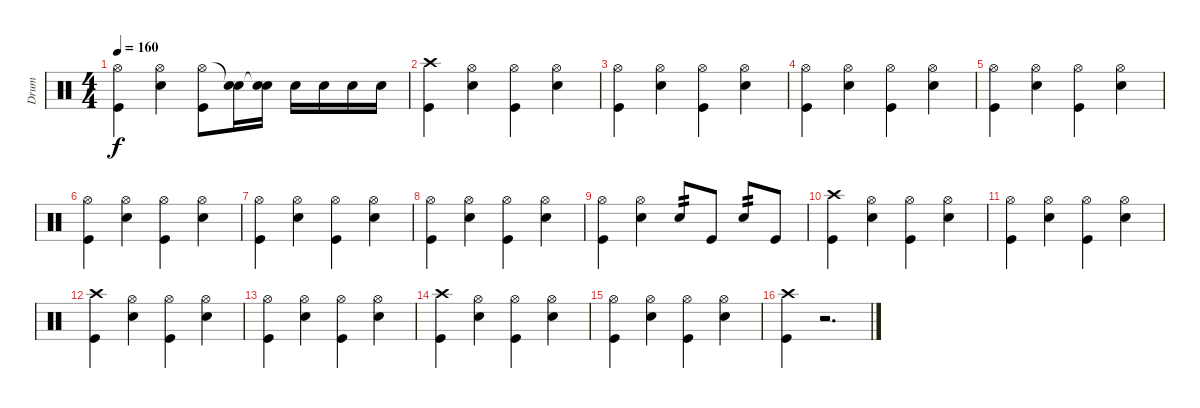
\track ("Drum" "Drum") {instrument percussion}
\staff {score}
\articulation defaults
\ts (4 4)
\tempo 160
\clef neutral
\ks c
("Hi-Hat (open)" "Kick (hit)").4{dy f} ("Hi-Hat (open)" "Snare (hit) 2").4 ("Hi-Hat (open)" "Kick (hit)").8 ("Snare (hit)"{t} "Snare (hit) 2").16 ("Snare (hit)"{t} "Snare (hit) 2").16 "Snare (hit) 2".16 "Snare (hit) 2".16 "Snare (hit) 2".16 "Snare (hit) 2".16 |
("Crash high (hit)" "Kick (hit)").4 ("Hi-Hat (open)" "Snare (hit) 2").4 ("Hi-Hat (open)" "Kick (hit)").4 ("Hi-Hat (open)" "Snare (hit) 2").4 |
("Hi-Hat (open)" "Kick (hit)").4 ("Hi-Hat (open)" "Snare (hit) 2").4 ("Hi-Hat (open)" "Kick (hit)").4 ("Hi-Hat (open)" "Snare (hit) 2").4 |
("Hi-Hat (open)" "Kick (hit)").4 ("Hi-Hat (open)" "Snare (hit) 2").4 ("Hi-Hat (open)" "Kick (hit)").4 ("Hi-Hat (open)" "Snare (hit) 2").4 |
("Hi-Hat (open)" "Kick (hit)").4 ("Hi-Hat (open)" "Snare (hit) 2").4 ("Hi-Hat (open)" "Kick (hit)").4 ("Hi-Hat (open)" "Snare (hit) 2").4 |
("Hi-Hat (open)" "Kick (hit)").4 ("Hi-Hat (open)" "Snare (hit) 2").4 ("Hi-Hat (open)" "Kick (hit)").4 ("Hi-Hat (open)" "Snare (hit) 2").4 |
("Hi-Hat (open)" "Kick (hit)").4 ("Hi-Hat (open)" "Snare (hit) 2").4 ("Hi-Hat (open)" "Kick (hit)").4 ("Hi-Hat (open)" "Snare (hit) 2").4 |
("Hi-Hat (open)" "Kick (hit)").4 ("Hi-Hat (open)" "Snare (hit) 2").4 ("Hi-Hat (open)" "Kick (hit)").4 ("Hi-Hat (open)" "Snare (hit) 2").4 |
("Hi-Hat (open)" "Kick (hit)").4 ("Hi-Hat (open)" "Snare (hit) 2").4 "Snare (hit) 2".8{tp 2} "Kick (hit)".8 "Snare (hit) 2".8{tp 2} "Kick (hit)".8 |
("Crash high (hit)" "Kick (hit)").4 ("Hi-Hat (open)" "Snare (hit) 2").4 ("Hi-Hat (open)" "Kick (hit)").4 ("Hi-Hat (open)" "Snare (hit) 2").4 |
("Hi-Hat (open)" "Kick (hit)").4 ("Hi-Hat (open)" "Snare (hit) 2").4 ("Hi-Hat (open)" "Kick (hit)").4 ("Hi-Hat (open)" "Snare (hit) 2").4 |
("Crash high (hit)" "Kick (hit)").4 ("Hi-Hat (open)" "Snare (hit) 2").4 ("Hi-Hat (open)" "Kick (hit)").4 ("Hi-Hat (open)" "Snare (hit) 2").4 |
("Hi-Hat (open)" "Kick (hit)").4 ("Hi-Hat (open)" "Snare (hit) 2").4 ("Hi-Hat (open)" "Kick (hit)").4 ("Hi-Hat (open)" "Snare (hit) 2").4 |
("Crash high (hit)" "Kick (hit)").4 ("Hi-Hat (open)" "Snare (hit) 2").4 ("Hi-Hat (open)" "Kick (hit)").4 ("Hi-Hat (open)" "Snare (hit) 2").4 |
("Hi-Hat (open)" "Kick (hit)").4 ("Hi-Hat (open)" "Snare (hit) 2").4 ("Hi-Hat (open)" "Kick (hit)").4 ("Hi-Hat (open)" "Snare (hit) 2").4 |
("Crash high (hit)" "Kick (hit)").4 r.2{d}
